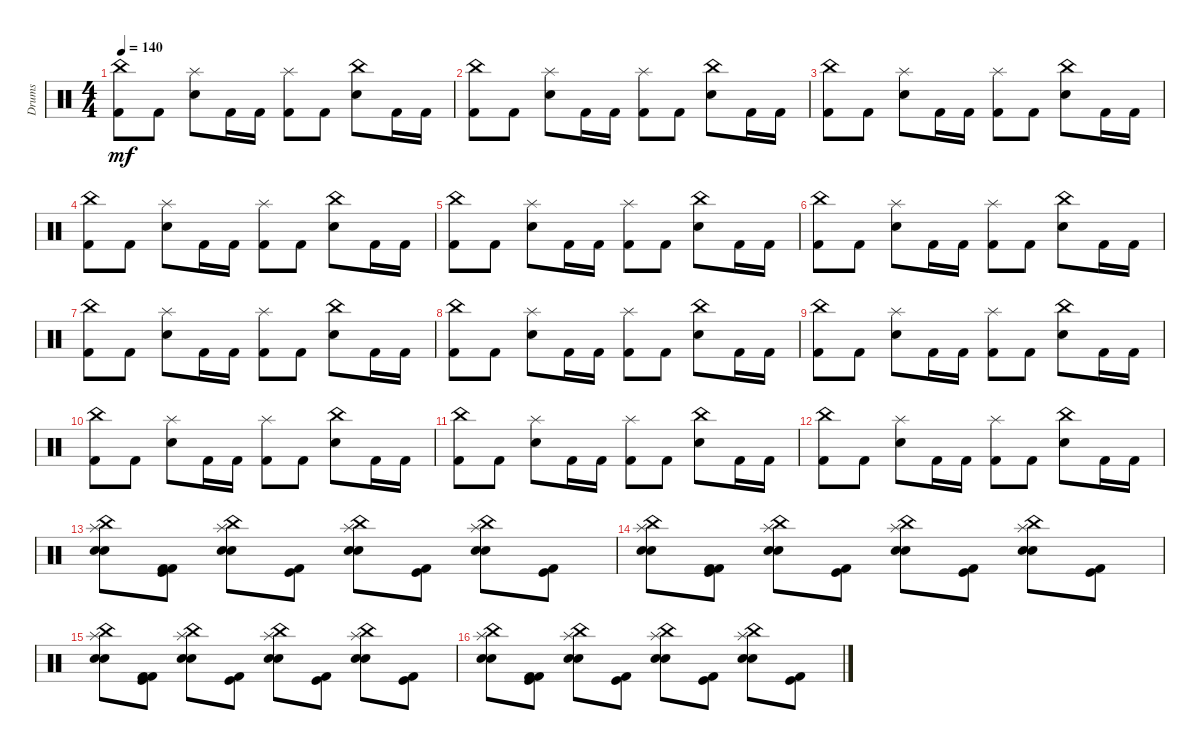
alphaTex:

\track ("Drums" "Drums") {instrument percussion}
\staff {score}
\articulation defaults
\ts (4 4)
\tempo 140
\clef neutral
\ks c
("China (hit)" "Kick (hit) 2").8{dy mf} "Kick (hit) 2".8 ("Electric Snare (hit)" "Splash (hit)").8 "Kick (hit) 2".16 "Kick (hit) 2".16 ("Kick (hit) 2" "Splash (hit)").8 "Kick (hit) 2".8 ("Electric Snare (hit)" "China (hit)").8 "Kick (hit) 2".16 "Kick (hit) 2".16 |
("China (hit)" "Kick (hit) 2").8 "Kick (hit) 2".8 ("Splash (hit)" "Electric Snare (hit)").8 "Kick (hit) 2".16 "Kick (hit) 2".16 ("Splash (hit)" "Kick (hit) 2").8 "Kick (hit) 2".8 ("Electric Snare (hit)" "China (hit)").8 "Kick (hit) 2".16 "Kick (hit) 2".16 |
("China (hit)" "Kick (hit) 2").8 "Kick (hit) 2".8 ("Electric Snare (hit)" "Splash (hit)").8 "Kick (hit) 2".16 "Kick (hit) 2".16 ("Kick (hit) 2" "Splash (hit)").8 "Kick (hit) 2".8 ("Electric Snare (hit)" "China (hit)").8 "Kick (hit) 2".16 "Kick (hit) 2".16 |
("China (hit)" "Kick (hit) 2").8 "Kick (hit) 2".8 ("Electric Snare (hit)" "Splash (hit)").8 "Kick (hit) 2".16 "Kick (hit) 2".16 ("Kick (hit) 2" "Splash (hit)").8 "Kick (hit) 2".8 ("Electric Snare (hit)" "China (hit)").8 "Kick (hit) 2".16 "Kick (hit) 2".16 |
("China (hit)" "Kick (hit) 2").8 "Kick (hit) 2".8 ("Splash (hit)" "Electric Snare (hit)").8 "Kick (hit) 2".16 "Kick (hit) 2".16 ("Kick (hit) 2" "Splash (hit)").8 "Kick (hit) 2".8 ("Electric Snare (hit)" "China (hit)").8 "Kick (hit) 2".16 "Kick (hit) 2".16 |
("China (hit)" "Kick (hit) 2").8 "Kick (hit) 2".8 ("Electric Snare (hit)" "Splash (hit)").8 "Kick (hit) 2".16 "Kick (hit) 2".16 ("Kick (hit) 2" "Splash (hit)").8 "Kick (hit) 2".8 ("Electric Snare (hit)" "China (hit)").8 "Kick (hit) 2".16 "Kick (hit) 2".16 |
("China (hit)" "Kick (hit) 2").8 "Kick (hit) 2".8 ("Splash (hit)" "Electric Snare (hit)").8 "Kick (hit) 2".16 "Kick (hit) 2".16 ("Splash (hit)" "Kick (hit) 2").8 "Kick (hit) 2".8 ("Electric Snare (hit)" "China (hit)").8 "Kick (hit) 2".16 "Kick (hit) 2".16 |
("China (hit)" "Kick (hit) 2").8 "Kick (hit) 2".8 ("Electric Snare (hit)" "Splash (hit)").8 "Kick (hit) 2".16 "Kick (hit) 2".16 ("Kick (hit) 2" "Splash (hit)").8 "Kick (hit) 2".8 ("Electric Snare (hit)" "China (hit)").8 "Kick (hit) 2".16 "Kick (hit) 2".16 |
("China (hit)" "Kick (hit) 2").8 "Kick (hit) 2".8 ("Electric Snare (hit)" "Splash (hit)").8 "Kick (hit) 2".16 "Kick (hit) 2".16 ("Kick (hit) 2" "Splash (hit)").8 "Kick (hit) 2".8 ("Electric Snare (hit)" "China (hit)").8 "Kick (hit) 2".16 "Kick (hit) 2".16 |
("China (hit)" "Kick (hit) 2").8 "Kick (hit) 2".8 ("Splash (hit)" "Electric Snare (hit)").8 "Kick (hit) 2".16 "Kick (hit) 2".16 ("Kick (hit) 2" "Splash (hit)").8 "Kick (hit) 2".8 ("Electric Snare (hit)" "China (hit)").8 "Kick (hit) 2".16 "Kick (hit) 2".16 |
("China (hit)" "Kick (hit) 2").8 "Kick (hit) 2".8 ("Electric Snare (hit)" "Splash (hit)").8 "Kick (hit) 2".16 "Kick (hit) 2".16 ("Kick (hit) 2" "Splash (hit)").8 "Kick (hit) 2".8 ("Electric Snare (hit)" "China (hit)").8 "Kick (hit) 2".16 "Kick (hit) 2".16 |
("China (hit)" "Kick (hit) 2").8 "Kick (hit) 2".8 ("Splash (hit)" "Electric Snare (hit)").8 "Kick (hit) 2".16 "Kick (hit) 2".16 ("Splash (hit)" "Kick (hit) 2").8 "Kick (hit) 2".8 ("Electric Snare (hit)" "China (hit)").8 "Kick (hit) 2".16 "Kick (hit) 2".16 |
("China (hit)" "Snare (hit) 2" "Electric Snare (hit)" "Splash (hit)").8 ("Kick (hit)" "Kick (hit) 2" "Kick (hit) 2").8 ("China (hit)" "Snare (hit) 2" "Electric Snare (hit)" "Splash (hit)").8 ("Kick (hit)" "Kick (hit) 2").8 ("China (hit)" "Splash (hit)" "Electric Snare (hit)" "Snare (hit) 2").8 ("Kick (hit)" "Kick (hit) 2").8 ("Snare (hit) 2" "Electric Snare (hit)" "Splash (hit)" "China (hit)").8 ("Kick (hit)" "Kick (hit) 2").8 |
("China (hit)" "Snare (hit) 2" "Electric Snare (hit)" "Splash (hit)").8 ("Kick (hit) 2" "Kick (hit) 2" "Kick (hit)").8 ("Splash (hit)" "Electric Snare (hit)" "Snare (hit) 2" "China (hit)").8 ("Kick (hit)" "Kick (hit) 2").8 ("China (hit)" "Splash (hit)" "Electric Snare (hit)" "Snare (hit) 2").8 ("Kick (hit)" "Kick (hit) 2").8 ("Snare (hit) 2" "Electric Snare (hit)" "Splash (hit)" "China (hit)").8 ("Kick (hit)" "Kick (hit) 2").8 |
("China (hit)" "Snare (hit) 2" "Electric Snare (hit)" "Splash (hit)").8 ("Kick (hit) 2" "Kick (hit) 2" "Kick (hit)").8 ("Splash (hit)" "Electric Snare (hit)" "Snare (hit) 2" "China (hit)").8 ("Kick (hit) 2" "Kick (hit)").8 ("China (hit)" "Splash (hit)" "Electric Snare (hit)" "Snare (hit) 2").8 ("Kick (hit)" "Kick (hit) 2").8 ("Snare (hit) 2" "Electric Snare (hit)" "Splash (hit)" "China (hit)").8 ("Kick (hit)" "Kick (hit) 2").8 |
("China (hit)" "Snare (hit) 2" "Electric Snare (hit)" "Splash (hit)").8 ("Kick (hit) 2" "Kick (hit) 2" "Kick (hit)").8 ("Splash (hit)" "Electric Snare (hit)" "Snare (hit) 2" "China (hit)").8 ("Kick (hit)" "Kick (hit) 2").8 ("China (hit)" "Splash (hit)" "Electric Snare (hit)" "Snare (hit) 2").8 ("Kick (hit)" "Kick (hit) 2").8 ("Snare (hit) 2" "Electric Snare (hit)" "Splash (hit)" "China (hit)").8 ("Kick (hit)" "Kick (hit) 2").8
